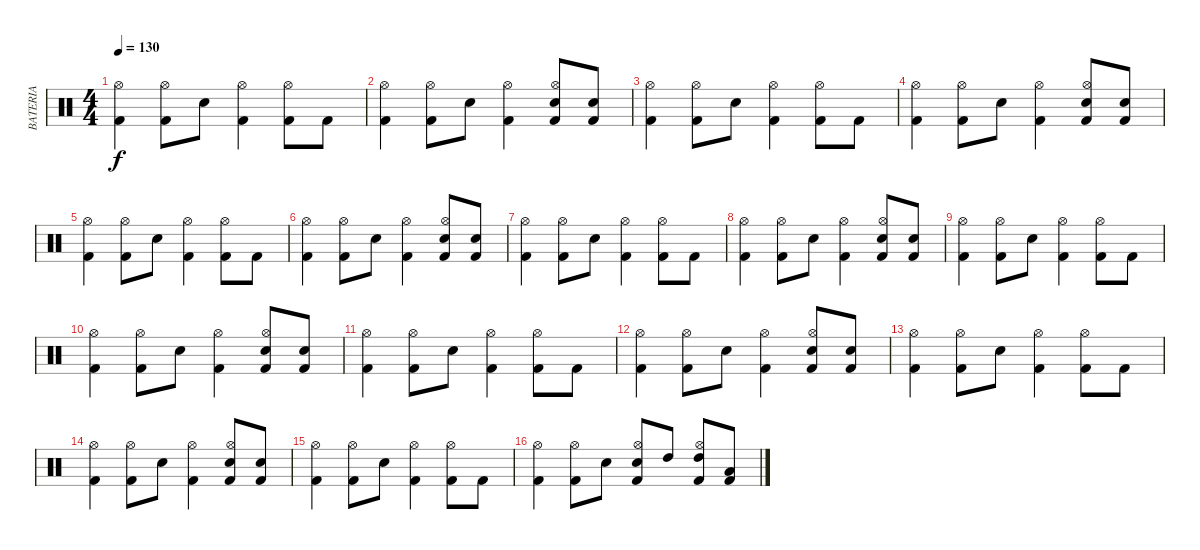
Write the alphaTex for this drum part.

\track ("BATERIA" "BATERIA") {instrument percussion}
\staff {score}
\articulation defaults
\ts (4 4)
\tempo 130
\clef neutral
\ks c
("Kick (hit) 2" "Hi-Hat (open)").4{dy f} ("Kick (hit) 2" "Hi-Hat (open)").8 "Electric Snare (hit)".8 ("Kick (hit) 2" "Hi-Hat (open)").4 ("Kick (hit) 2" "Hi-Hat (open)").8 "Kick (hit) 2".8 |
("Kick (hit) 2" "Hi-Hat (open)").4 ("Kick (hit) 2" "Hi-Hat (open)").8 "Electric Snare (hit)".8 ("Kick (hit) 2" "Hi-Hat (open)").4 ("Kick (hit) 2" "Electric Snare (hit)" "Hi-Hat (open)").8 ("Kick (hit) 2" "Electric Snare (hit)").8 |
("Kick (hit) 2" "Hi-Hat (open)").4 ("Kick (hit) 2" "Hi-Hat (open)").8 "Electric Snare (hit)".8 ("Kick (hit) 2" "Hi-Hat (open)").4 ("Kick (hit) 2" "Hi-Hat (open)").8 "Kick (hit) 2".8 |
("Kick (hit) 2" "Hi-Hat (open)").4 ("Kick (hit) 2" "Hi-Hat (open)").8 "Electric Snare (hit)".8 ("Kick (hit) 2" "Hi-Hat (open)").4 ("Kick (hit) 2" "Electric Snare (hit)" "Hi-Hat (open)").8 ("Kick (hit) 2" "Electric Snare (hit)").8 |
("Kick (hit) 2" "Hi-Hat (open)").4 ("Kick (hit) 2" "Hi-Hat (open)").8 "Electric Snare (hit)".8 ("Kick (hit) 2" "Hi-Hat (open)").4 ("Kick (hit) 2" "Hi-Hat (open)").8 "Kick (hit) 2".8 |
("Kick (hit) 2" "Hi-Hat (open)").4 ("Kick (hit) 2" "Hi-Hat (open)").8 "Electric Snare (hit)".8 ("Kick (hit) 2" "Hi-Hat (open)").4 ("Kick (hit) 2" "Electric Snare (hit)" "Hi-Hat (open)").8 ("Kick (hit) 2" "Electric Snare (hit)").8 |
("Kick (hit) 2" "Hi-Hat (open)").4 ("Kick (hit) 2" "Hi-Hat (open)").8 "Electric Snare (hit)".8 ("Kick (hit) 2" "Hi-Hat (open)").4 ("Kick (hit) 2" "Hi-Hat (open)").8 "Kick (hit) 2".8 |
("Kick (hit) 2" "Hi-Hat (open)").4 ("Kick (hit) 2" "Hi-Hat (open)").8 "Electric Snare (hit)".8 ("Kick (hit) 2" "Hi-Hat (open)").4 ("Kick (hit) 2" "Electric Snare (hit)" "Hi-Hat (open)").8 ("Kick (hit) 2" "Electric Snare (hit)").8 |
("Kick (hit) 2" "Hi-Hat (open)").4 ("Kick (hit) 2" "Hi-Hat (open)").8 "Electric Snare (hit)".8 ("Kick (hit) 2" "Hi-Hat (open)").4 ("Kick (hit) 2" "Hi-Hat (open)").8 "Kick (hit) 2".8 |
("Kick (hit) 2" "Hi-Hat (open)").4 ("Kick (hit) 2" "Hi-Hat (open)").8 "Electric Snare (hit)".8 ("Kick (hit) 2" "Hi-Hat (open)").4 ("Kick (hit) 2" "Electric Snare (hit)" "Hi-Hat (open)").8 ("Kick (hit) 2" "Electric Snare (hit)").8 |
("Kick (hit) 2" "Hi-Hat (open)").4 ("Kick (hit) 2" "Hi-Hat (open)").8 "Electric Snare (hit)".8 ("Kick (hit) 2" "Hi-Hat (open)").4 ("Kick (hit) 2" "Hi-Hat (open)").8 "Kick (hit) 2".8 |
("Kick (hit) 2" "Hi-Hat (open)").4 ("Kick (hit) 2" "Hi-Hat (open)").8 "Electric Snare (hit)".8 ("Kick (hit) 2" "Hi-Hat (open)").4 ("Kick (hit) 2" "Electric Snare (hit)" "Hi-Hat (open)").8 ("Kick (hit) 2" "Electric Snare (hit)").8 |
("Kick (hit) 2" "Hi-Hat (open)").4 ("Kick (hit) 2" "Hi-Hat (open)").8 "Electric Snare (hit)".8 ("Kick (hit) 2" "Hi-Hat (open)").4 ("Kick (hit) 2" "Hi-Hat (open)").8 "Kick (hit) 2".8 |
("Kick (hit) 2" "Hi-Hat (open)").4 ("Kick (hit) 2" "Hi-Hat (open)").8 "Electric Snare (hit)".8 ("Kick (hit) 2" "Hi-Hat (open)").4 ("Kick (hit) 2" "Electric Snare (hit)" "Hi-Hat (open)").8 ("Kick (hit) 2" "Electric Snare (hit)").8 |
("Kick (hit) 2" "Hi-Hat (open)").4 ("Kick (hit) 2" "Hi-Hat (open)").8 "Electric Snare (hit)".8 ("Kick (hit) 2" "Hi-Hat (open)").4 ("Kick (hit) 2" "Hi-Hat (open)").8 "Kick (hit) 2".8 |
("Kick (hit) 2" "Hi-Hat (open)").4 ("Kick (hit) 2" "Hi-Hat (open)").8 "Electric Snare (hit)".8 ("Kick (hit) 2" "Hi-Hat (open)" "Electric Snare (hit)").8 "High Tom (hit)".8 ("Kick (hit) 2" "Hi-Hat (open)" "High Tom (hit)").8 ("Kick (hit) 2" "Low Tom (hit)").8
